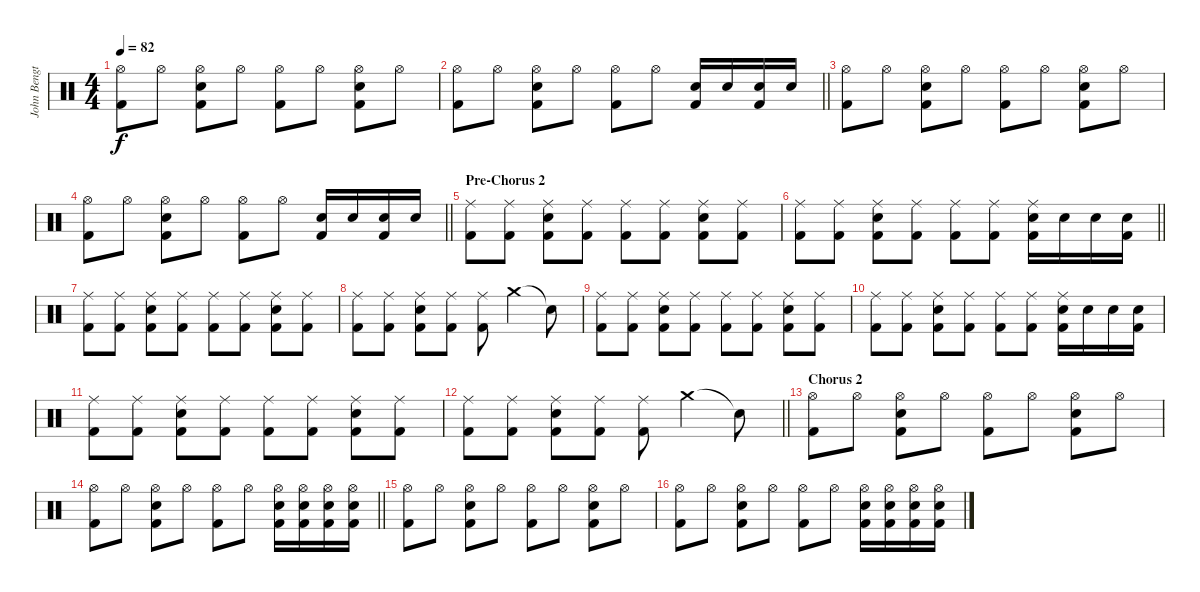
\track ("John Bengtsson" "John Bengt") {instrument percussion}
\staff {score}
\articulation defaults
\ts (4 4)
\tempo 82
\clef neutral
\ks c
("Hi-Hat (open)" "Kick (hit) 2").8{dy f} "Hi-Hat (open)".8 ("Hi-Hat (open)" "Electric Snare (hit)" "Kick (hit) 2").8 "Hi-Hat (open)".8 ("Hi-Hat (open)" "Kick (hit) 2").8 "Hi-Hat (open)".8 ("Hi-Hat (open)" "Electric Snare (hit)" "Kick (hit) 2").8 "Hi-Hat (open)".8 |
\barLineRight lightlight
("Hi-Hat (open)" "Kick (hit) 2").8 "Hi-Hat (open)".8 ("Hi-Hat (open)" "Electric Snare (hit)" "Kick (hit) 2").8 "Hi-Hat (open)".8 ("Hi-Hat (open)" "Kick (hit) 2").8 "Hi-Hat (open)".8 ("Electric Snare (hit)" "Kick (hit) 2").16 "Electric Snare (hit)".16 ("Electric Snare (hit)" "Kick (hit) 2").16 "Electric Snare (hit)".16 |
("Hi-Hat (open)" "Kick (hit) 2").8 "Hi-Hat (open)".8 ("Hi-Hat (open)" "Electric Snare (hit)" "Kick (hit) 2").8 "Hi-Hat (open)".8 ("Hi-Hat (open)" "Kick (hit) 2").8 "Hi-Hat (open)".8 ("Hi-Hat (open)" "Electric Snare (hit)" "Kick (hit) 2").8 "Hi-Hat (open)".8 |
\barLineRight lightlight
("Hi-Hat (open)" "Kick (hit) 2").8 "Hi-Hat (open)".8 ("Hi-Hat (open)" "Electric Snare (hit)" "Kick (hit) 2").8 "Hi-Hat (open)".8 ("Hi-Hat (open)" "Kick (hit) 2").8 "Hi-Hat (open)".8 ("Electric Snare (hit)" "Kick (hit) 2").16 "Electric Snare (hit)".16 ("Electric Snare (hit)" "Kick (hit) 2").16 "Electric Snare (hit)".16 |
\section ("" "Pre-Chorus 2")
("Ride (middle)" "Kick (hit) 2").8 ("Ride (middle)" "Kick (hit) 2").8 ("Ride (middle)" "Electric Snare (hit)" "Kick (hit) 2").8 ("Ride (middle)" "Kick (hit) 2").8 ("Ride (middle)" "Kick (hit) 2").8 ("Ride (middle)" "Kick (hit) 2").8 ("Ride (middle)" "Electric Snare (hit)" "Kick (hit) 2").8 ("Ride (middle)" "Kick (hit) 2").8 |
\barLineRight lightlight
("Ride (middle)" "Kick (hit) 2").8 ("Ride (middle)" "Kick (hit) 2").8 ("Ride (middle)" "Electric Snare (hit)" "Kick (hit) 2").8 ("Ride (middle)" "Kick (hit) 2").8 ("Ride (middle)" "Kick (hit) 2").8 ("Ride (middle)" "Kick (hit) 2").8 ("Ride (middle)" "Electric Snare (hit)" "Kick (hit) 2").16 "Electric Snare (hit)".16 "Electric Snare (hit)".16 ("Electric Snare (hit)" "Kick (hit) 2").16 |
("Ride (middle)" "Kick (hit) 2").8 ("Ride (middle)" "Kick (hit) 2").8 ("Ride (middle)" "Electric Snare (hit)" "Kick (hit) 2").8 ("Ride (middle)" "Kick (hit) 2").8 ("Ride (middle)" "Kick (hit) 2").8 ("Ride (middle)" "Kick (hit) 2").8 ("Ride (middle)" "Electric Snare (hit)" "Kick (hit) 2").8 ("Ride (middle)" "Kick (hit) 2").8 |
("Ride (middle)" "Kick (hit) 2").8 ("Ride (middle)" "Kick (hit) 2").8 ("Ride (middle)" "Electric Snare (hit)" "Kick (hit) 2").8 ("Ride (middle)" "Kick (hit) 2").8 ("Ride (middle)" "Kick (hit) 2").8 "Crash medium (hit)".4 "Snare (hit)"{t}.8 |
("Ride (middle)" "Kick (hit) 2").8 ("Ride (middle)" "Kick (hit) 2").8 ("Ride (middle)" "Electric Snare (hit)" "Kick (hit) 2").8 ("Ride (middle)" "Kick (hit) 2").8 ("Ride (middle)" "Kick (hit) 2").8 ("Ride (middle)" "Kick (hit) 2").8 ("Ride (middle)" "Electric Snare (hit)" "Kick (hit) 2").8 ("Ride (middle)" "Kick (hit) 2").8 |
("Ride (middle)" "Kick (hit) 2").8 ("Ride (middle)" "Kick (hit) 2").8 ("Ride (middle)" "Electric Snare (hit)" "Kick (hit) 2").8 ("Ride (middle)" "Kick (hit) 2").8 ("Ride (middle)" "Kick (hit) 2").8 ("Ride (middle)" "Kick (hit) 2").8 ("Ride (middle)" "Electric Snare (hit)" "Kick (hit) 2").16 "Electric Snare (hit)".16 "Electric Snare (hit)".16 ("Electric Snare (hit)" "Kick (hit) 2").16 |
("Ride (middle)" "Kick (hit) 2").8 ("Ride (middle)" "Kick (hit) 2").8 ("Ride (middle)" "Electric Snare (hit)" "Kick (hit) 2").8 ("Ride (middle)" "Kick (hit) 2").8 ("Ride (middle)" "Kick (hit) 2").8 ("Ride (middle)" "Kick (hit) 2").8 ("Ride (middle)" "Electric Snare (hit)" "Kick (hit) 2").8 ("Ride (middle)" "Kick (hit) 2").8 |
\barLineRight lightlight
("Ride (middle)" "Kick (hit) 2").8 ("Ride (middle)" "Kick (hit) 2").8 ("Ride (middle)" "Electric Snare (hit)" "Kick (hit) 2").8 ("Ride (middle)" "Kick (hit) 2").8 ("Ride (middle)" "Kick (hit) 2").8 "Crash medium (hit)".4 "Snare (hit)"{t}.8 |
\section ("" "Chorus 2")
("Hi-Hat (open)" "Kick (hit) 2").8 "Hi-Hat (open)".8 ("Hi-Hat (open)" "Electric Snare (hit)" "Kick (hit) 2").8 "Hi-Hat (open)".8 ("Hi-Hat (open)" "Kick (hit) 2").8 "Hi-Hat (open)".8 ("Hi-Hat (open)" "Electric Snare (hit)" "Kick (hit) 2").8 "Hi-Hat (open)".8 |
\barLineRight lightlight
("Hi-Hat (open)" "Kick (hit) 2").8 "Hi-Hat (open)".8 ("Hi-Hat (open)" "Electric Snare (hit)" "Kick (hit) 2").8 "Hi-Hat (open)".8 ("Hi-Hat (open)" "Kick (hit) 2").8 "Hi-Hat (open)".8 ("Hi-Hat (open)" "Electric Snare (hit)" "Kick (hit) 2").16 ("Hi-Hat (open)" "Electric Snare (hit)" "Kick (hit) 2").16 ("Hi-Hat (open)" "Electric Snare (hit)" "Kick (hit) 2").16 ("Hi-Hat (open)" "Electric Snare (hit)" "Kick (hit) 2").16 |
("Hi-Hat (open)" "Kick (hit) 2").8 "Hi-Hat (open)".8 ("Hi-Hat (open)" "Electric Snare (hit)" "Kick (hit) 2").8 "Hi-Hat (open)".8 ("Hi-Hat (open)" "Kick (hit) 2").8 "Hi-Hat (open)".8 ("Hi-Hat (open)" "Electric Snare (hit)" "Kick (hit) 2").8 "Hi-Hat (open)".8 |
("Hi-Hat (open)" "Kick (hit) 2").8 "Hi-Hat (open)".8 ("Hi-Hat (open)" "Electric Snare (hit)" "Kick (hit) 2").8 "Hi-Hat (open)".8 ("Hi-Hat (open)" "Kick (hit) 2").8 "Hi-Hat (open)".8 ("Hi-Hat (open)" "Electric Snare (hit)" "Kick (hit) 2").16 ("Hi-Hat (open)" "Electric Snare (hit)" "Kick (hit) 2").16 ("Hi-Hat (open)" "Electric Snare (hit)" "Kick (hit) 2").16 ("Hi-Hat (open)" "Electric Snare (hit)" "Kick (hit) 2").16
